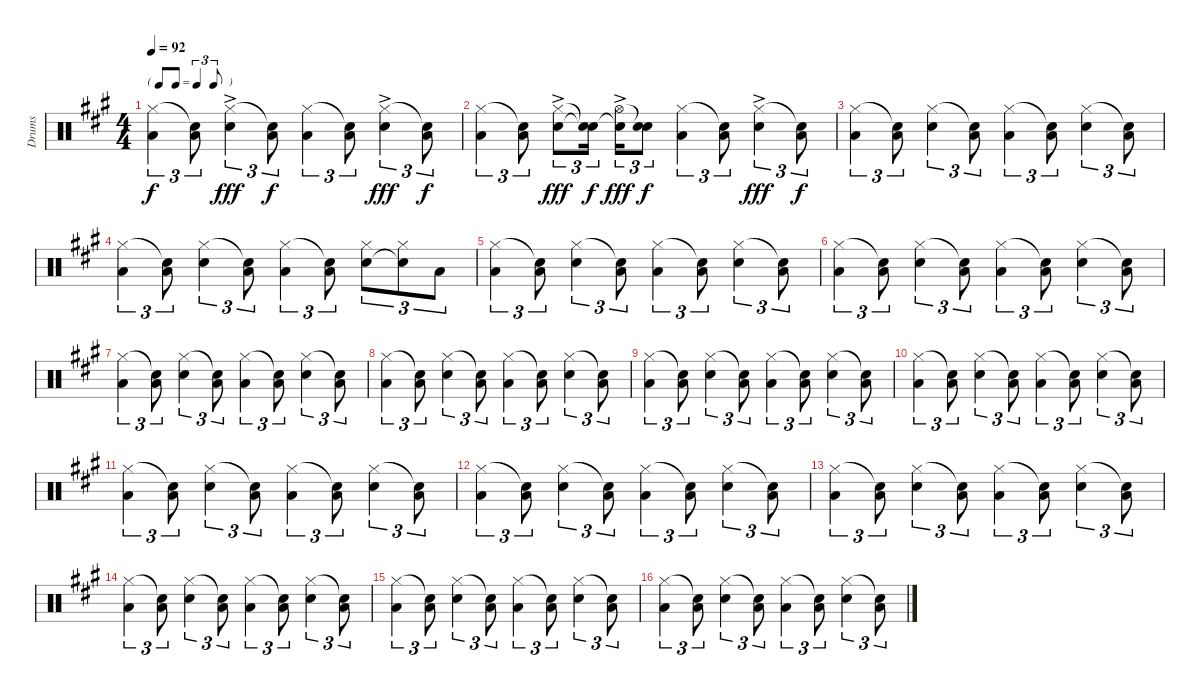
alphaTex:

\track ("Drums" "Drums") {instrument percussion}
\staff {score}
\articulation defaults
\ts (4 4)
\tf triplet8th
\tempo 92
\clef neutral
\ks f#minor
("Hi-Hat (closed)" "Low Tom (hit)").4{tu (3 2) dy f} ("Snare (hit)"{t} "Low Tom (hit)").8{tu (3 2)} ("Hi-Hat (closed)"{ac} "Snare (hit) 2").4{tu (3 2) dy fff} ("Snare (hit)"{t} "Low Tom (hit)").8{tu (3 2) dy f} ("Hi-Hat (closed)" "Low Tom (hit)").4{tu (3 2)} ("Snare (hit)"{t} "Low Tom (hit)").8{tu (3 2)} ("Hi-Hat (closed)"{ac} "Snare (hit) 2").4{tu (3 2) dy fff} ("Snare (hit)"{t} "Low Tom (hit)").8{tu (3 2) dy f} |
("Hi-Hat (closed)" "Low Tom (hit)").4{tu (3 2)} ("Snare (hit)"{t} "Low Tom (hit)").8{tu (3 2)} ("Hi-Hat (closed)"{ac} "Snare (hit) 2").8{tu (3 2) dy fff} ("Snare (hit)"{t} "Snare (hit)"{t}).16{tu (3 2) dy f} ("Hi-Hat (open)"{ac} "Snare (hit)"{t}).16{tu (3 2) dy fff} ("Snare (hit)"{t} "Snare (hit) 2").8{tu (3 2) dy f} ("Hi-Hat (closed)" "Low Tom (hit)").4{tu (3 2)} ("Snare (hit)"{t} "Low Tom (hit)").8{tu (3 2)} ("Hi-Hat (closed)"{ac} "Snare (hit) 2").4{tu (3 2) dy fff} ("Snare (hit)"{t} "Low Tom (hit)").8{tu (3 2) dy f} |
("Hi-Hat (closed)" "Low Tom (hit)").4{tu (3 2)} ("Snare (hit)"{t} "Low Tom (hit)").8{tu (3 2)} ("Hi-Hat (closed)" "Snare (hit) 2").4{tu (3 2)} ("Snare (hit)"{t} "Low Tom (hit)").8{tu (3 2)} ("Hi-Hat (closed)" "Low Tom (hit)").4{tu (3 2)} ("Snare (hit)"{t} "Low Tom (hit)").8{tu (3 2)} ("Hi-Hat (closed)" "Snare (hit) 2").4{tu (3 2)} ("Snare (hit)"{t} "Low Tom (hit)").8{tu (3 2)} |
("Hi-Hat (closed)" "Low Tom (hit)").4{tu (3 2)} ("Snare (hit)"{t} "Low Tom (hit)").8{tu (3 2)} ("Hi-Hat (closed)" "Snare (hit) 2").4{tu (3 2)} ("Snare (hit)"{t} "Low Tom (hit)").8{tu (3 2)} ("Hi-Hat (closed)" "Low Tom (hit)").4{tu (3 2)} ("Snare (hit)"{t} "Low Tom (hit)").8{tu (3 2)} ("Hi-Hat (closed)" "Snare (hit) 2").8{tu (3 2)} ("Hi-Hat (closed)" "Snare (hit)"{t}).8{tu (3 2)} "Low Tom (hit)".8{tu (3 2)} |
("Hi-Hat (closed)" "Low Tom (hit)").4{tu (3 2)} ("Snare (hit)"{t} "Low Tom (hit)").8{tu (3 2)} ("Hi-Hat (closed)" "Snare (hit) 2").4{tu (3 2)} ("Snare (hit)"{t} "Low Tom (hit)").8{tu (3 2)} ("Hi-Hat (closed)" "Low Tom (hit)").4{tu (3 2)} ("Snare (hit)"{t} "Low Tom (hit)").8{tu (3 2)} ("Hi-Hat (closed)" "Snare (hit) 2").4{tu (3 2)} ("Snare (hit)"{t} "Low Tom (hit)").8{tu (3 2)} |
("Hi-Hat (closed)" "Low Tom (hit)").4{tu (3 2)} ("Snare (hit)"{t} "Low Tom (hit)").8{tu (3 2)} ("Hi-Hat (closed)" "Snare (hit) 2").4{tu (3 2)} ("Snare (hit)"{t} "Low Tom (hit)").8{tu (3 2)} ("Hi-Hat (closed)" "Low Tom (hit)").4{tu (3 2)} ("Snare (hit)"{t} "Low Tom (hit)").8{tu (3 2)} ("Hi-Hat (closed)" "Snare (hit) 2").4{tu (3 2)} ("Snare (hit)"{t} "Low Tom (hit)").8{tu (3 2)} |
("Hi-Hat (closed)" "Low Tom (hit)").4{tu (3 2)} ("Snare (hit)"{t} "Low Tom (hit)").8{tu (3 2)} ("Hi-Hat (closed)" "Snare (hit) 2").4{tu (3 2)} ("Snare (hit)"{t} "Low Tom (hit)").8{tu (3 2)} ("Hi-Hat (closed)" "Low Tom (hit)").4{tu (3 2)} ("Snare (hit)"{t} "Low Tom (hit)").8{tu (3 2)} ("Hi-Hat (closed)" "Snare (hit) 2").4{tu (3 2)} ("Snare (hit)"{t} "Low Tom (hit)").8{tu (3 2)} |
("Hi-Hat (closed)" "Low Tom (hit)").4{tu (3 2)} ("Snare (hit)"{t} "Low Tom (hit)").8{tu (3 2)} ("Hi-Hat (closed)" "Snare (hit) 2").4{tu (3 2)} ("Snare (hit)"{t} "Low Tom (hit)").8{tu (3 2)} ("Hi-Hat (closed)" "Low Tom (hit)").4{tu (3 2)} ("Snare (hit)"{t} "Low Tom (hit)").8{tu (3 2)} ("Hi-Hat (closed)" "Snare (hit) 2").4{tu (3 2)} ("Snare (hit)"{t} "Low Tom (hit)").8{tu (3 2)} |
("Hi-Hat (closed)" "Low Tom (hit)").4{tu (3 2)} ("Snare (hit)"{t} "Low Tom (hit)").8{tu (3 2)} ("Hi-Hat (closed)" "Snare (hit) 2").4{tu (3 2)} ("Snare (hit)"{t} "Low Tom (hit)").8{tu (3 2)} ("Hi-Hat (closed)" "Low Tom (hit)").4{tu (3 2)} ("Snare (hit)"{t} "Low Tom (hit)").8{tu (3 2)} ("Hi-Hat (closed)" "Snare (hit) 2").4{tu (3 2)} ("Snare (hit)"{t} "Low Tom (hit)").8{tu (3 2)} |
("Hi-Hat (closed)" "Low Tom (hit)").4{tu (3 2)} ("Snare (hit)"{t} "Low Tom (hit)").8{tu (3 2)} ("Hi-Hat (closed)" "Snare (hit) 2").4{tu (3 2)} ("Snare (hit)"{t} "Low Tom (hit)").8{tu (3 2)} ("Hi-Hat (closed)" "Low Tom (hit)").4{tu (3 2)} ("Snare (hit)"{t} "Low Tom (hit)").8{tu (3 2)} ("Hi-Hat (closed)" "Snare (hit) 2").4{tu (3 2)} ("Snare (hit)"{t} "Low Tom (hit)").8{tu (3 2)} |
("Hi-Hat (closed)" "Low Tom (hit)").4{tu (3 2)} ("Snare (hit)"{t} "Low Tom (hit)").8{tu (3 2)} ("Hi-Hat (closed)" "Snare (hit) 2").4{tu (3 2)} ("Snare (hit)"{t} "Low Tom (hit)").8{tu (3 2)} ("Hi-Hat (closed)" "Low Tom (hit)").4{tu (3 2)} ("Snare (hit)"{t} "Low Tom (hit)").8{tu (3 2)} ("Hi-Hat (closed)" "Snare (hit) 2").4{tu (3 2)} ("Snare (hit)"{t} "Low Tom (hit)").8{tu (3 2)} |
("Hi-Hat (closed)" "Low Tom (hit)").4{tu (3 2)} ("Snare (hit)"{t} "Low Tom (hit)").8{tu (3 2)} ("Hi-Hat (closed)" "Snare (hit) 2").4{tu (3 2)} ("Snare (hit)"{t} "Low Tom (hit)").8{tu (3 2)} ("Hi-Hat (closed)" "Low Tom (hit)").4{tu (3 2)} ("Snare (hit)"{t} "Low Tom (hit)").8{tu (3 2)} ("Hi-Hat (closed)" "Snare (hit) 2").4{tu (3 2)} ("Snare (hit)"{t} "Low Tom (hit)").8{tu (3 2)} |
("Hi-Hat (closed)" "Low Tom (hit)").4{tu (3 2)} ("Snare (hit)"{t} "Low Tom (hit)").8{tu (3 2)} ("Hi-Hat (closed)" "Snare (hit) 2").4{tu (3 2)} ("Snare (hit)"{t} "Low Tom (hit)").8{tu (3 2)} ("Hi-Hat (closed)" "Low Tom (hit)").4{tu (3 2)} ("Snare (hit)"{t} "Low Tom (hit)").8{tu (3 2)} ("Hi-Hat (closed)" "Snare (hit) 2").4{tu (3 2)} ("Snare (hit)"{t} "Low Tom (hit)").8{tu (3 2)} |
("Hi-Hat (closed)" "Low Tom (hit)").4{tu (3 2)} ("Snare (hit)"{t} "Low Tom (hit)").8{tu (3 2)} ("Hi-Hat (closed)" "Snare (hit) 2").4{tu (3 2)} ("Snare (hit)"{t} "Low Tom (hit)").8{tu (3 2)} ("Hi-Hat (closed)" "Low Tom (hit)").4{tu (3 2)} ("Snare (hit)"{t} "Low Tom (hit)").8{tu (3 2)} ("Hi-Hat (closed)" "Snare (hit) 2").4{tu (3 2)} ("Snare (hit)"{t} "Low Tom (hit)").8{tu (3 2)} |
("Hi-Hat (closed)" "Low Tom (hit)").4{tu (3 2)} ("Snare (hit)"{t} "Low Tom (hit)").8{tu (3 2)} ("Hi-Hat (closed)" "Snare (hit) 2").4{tu (3 2)} ("Snare (hit)"{t} "Low Tom (hit)").8{tu (3 2)} ("Hi-Hat (closed)" "Low Tom (hit)").4{tu (3 2)} ("Snare (hit)"{t} "Low Tom (hit)").8{tu (3 2)} ("Hi-Hat (closed)" "Snare (hit) 2").4{tu (3 2)} ("Snare (hit)"{t} "Low Tom (hit)").8{tu (3 2)} |
("Hi-Hat (closed)" "Low Tom (hit)").4{tu (3 2)} ("Snare (hit)"{t} "Low Tom (hit)").8{tu (3 2)} ("Hi-Hat (closed)" "Snare (hit) 2").4{tu (3 2)} ("Snare (hit)"{t} "Low Tom (hit)").8{tu (3 2)} ("Hi-Hat (closed)" "Low Tom (hit)").4{tu (3 2)} ("Snare (hit)"{t} "Low Tom (hit)").8{tu (3 2)} ("Hi-Hat (closed)" "Snare (hit) 2").4{tu (3 2)} ("Snare (hit)"{t} "Low Tom (hit)").8{tu (3 2)}
